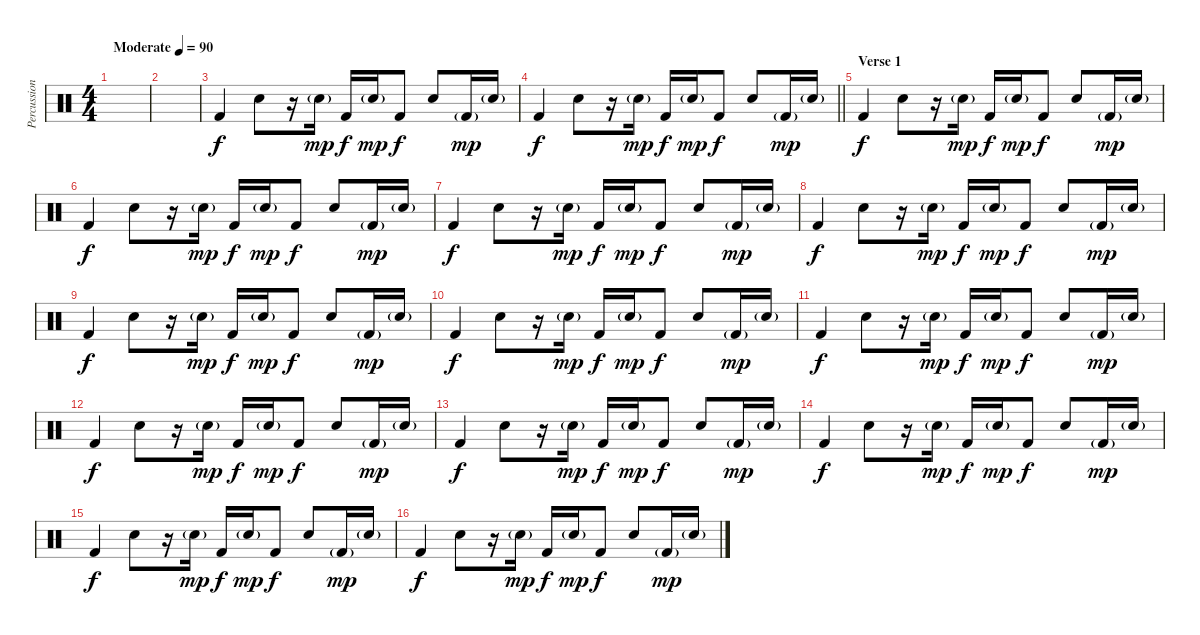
\track ("Percussion" "Percussion") {instrument percussion}
\staff {score}
\articulation defaults
\ts (4 4)
\tempo (90 "Moderate")
\clef neutral
\ks c
|
|
"Kick (hit) 2".4 "Snare (hit) 2".8 r.16 "Snare (hit) 2"{g}.16{dy mp} "Kick (hit) 2".16{dy f} "Snare (hit) 2"{g}.16{dy mp} "Kick (hit) 2".8{dy f} "Snare (hit) 2".8 "Kick (hit) 2"{g}.16{dy mp} "Snare (hit) 2"{g}.16 |
\barLineRight lightlight "Kick (hit) 2".4{dy f} "Snare (hit) 2".8
r.16 "Snare (hit) 2"{g}.16{dy mp} "Kick (hit) 2".16{dy f} "Snare (hit) 2"{g}.16{dy mp} "Kick (hit) 2".8{dy f} "Snare (hit) 2".8 "Kick (hit) 2"{g}.16{dy mp} "Snare (hit) 2"{g}.16 |
\section ("" "Verse 1")
"Kick (hit) 2".4{dy f} "Snare (hit) 2".8 r.16 "Snare (hit) 2"{g}.16{dy mp} "Kick (hit) 2".16{dy f} "Snare (hit) 2"{g}.16{dy mp} "Kick (hit) 2".8{dy f} "Snare (hit) 2".8 "Kick (hit) 2"{g}.16{dy mp} "Snare (hit) 2"{g}.16 |
"Kick (hit) 2".4{dy f} "Snare (hit) 2".8 r.16 "Snare (hit) 2"{g}.16{dy mp} "Kick (hit) 2".16{dy f} "Snare (hit) 2"{g}.16{dy mp} "Kick (hit) 2".8{dy f} "Snare (hit) 2".8 "Kick (hit) 2"{g}.16{dy mp} "Snare (hit) 2"{g}.16 |
"Kick (hit) 2".4{dy f} "Snare (hit) 2".8 r.16 "Snare (hit) 2"{g}.16{dy mp} "Kick (hit) 2".16{dy f} "Snare (hit) 2"{g}.16{dy mp} "Kick (hit) 2".8{dy f} "Snare (hit) 2".8 "Kick (hit) 2"{g}.16{dy mp} "Snare (hit) 2"{g}.16 |
"Kick (hit) 2".4{dy f} "Snare (hit) 2".8 r.16 "Snare (hit) 2"{g}.16{dy mp} "Kick (hit) 2".16{dy f} "Snare (hit) 2"{g}.16{dy mp} "Kick (hit) 2".8{dy f} "Snare (hit) 2".8 "Kick (hit) 2"{g}.16{dy mp} "Snare (hit) 2"{g}.16 |
"Kick (hit) 2".4{dy f} "Snare (hit) 2".8 r.16 "Snare (hit) 2"{g}.16{dy mp} "Kick (hit) 2".16{dy f} "Snare (hit) 2"{g}.16{dy mp} "Kick (hit) 2".8{dy f} "Snare (hit) 2".8 "Kick (hit) 2"{g}.16{dy mp} "Snare (hit) 2"{g}.16 |
"Kick (hit) 2".4{dy f} "Snare (hit) 2".8 r.16 "Snare (hit) 2"{g}.16{dy mp} "Kick (hit) 2".16{dy f} "Snare (hit) 2"{g}.16{dy mp} "Kick (hit) 2".8{dy f} "Snare (hit) 2".8 "Kick (hit) 2"{g}.16{dy mp} "Snare (hit) 2"{g}.16 |
"Kick (hit) 2".4{dy f} "Snare (hit) 2".8 r.16 "Snare (hit) 2"{g}.16{dy mp} "Kick (hit) 2".16{dy f} "Snare (hit) 2"{g}.16{dy mp} "Kick (hit) 2".8{dy f} "Snare (hit) 2".8 "Kick (hit) 2"{g}.16{dy mp} "Snare (hit) 2"{g}.16 |
"Kick (hit) 2".4{dy f} "Snare (hit) 2".8 r.16 "Snare (hit) 2"{g}.16{dy mp} "Kick (hit) 2".16{dy f} "Snare (hit) 2"{g}.16{dy mp} "Kick (hit) 2".8{dy f} "Snare (hit) 2".8 "Kick (hit) 2"{g}.16{dy mp} "Snare (hit) 2"{g}.16 |
"Kick (hit) 2".4{dy f} "Snare (hit) 2".8 r.16 "Snare (hit) 2"{g}.16{dy mp} "Kick (hit) 2".16{dy f} "Snare (hit) 2"{g}.16{dy mp} "Kick (hit) 2".8{dy f} "Snare (hit) 2".8 "Kick (hit) 2"{g}.16{dy mp} "Snare (hit) 2"{g}.16 |
"Kick (hit) 2".4{dy f} "Snare (hit) 2".8 r.16 "Snare (hit) 2"{g}.16{dy mp} "Kick (hit) 2".16{dy f} "Snare (hit) 2"{g}.16{dy mp} "Kick (hit) 2".8{dy f} "Snare (hit) 2".8 "Kick (hit) 2"{g}.16{dy mp} "Snare (hit) 2"{g}.16 |
"Kick (hit) 2".4{dy f} "Snare (hit) 2".8 r.16 "Snare (hit) 2"{g}.16{dy mp} "Kick (hit) 2".16{dy f} "Snare (hit) 2"{g}.16{dy mp} "Kick (hit) 2".8{dy f} "Snare (hit) 2".8 "Kick (hit) 2"{g}.16{dy mp} "Snare (hit) 2"{g}.16 |
"Kick (hit) 2".4{dy f} "Snare (hit) 2".8 r.16 "Snare (hit) 2"{g}.16{dy mp} "Kick (hit) 2".16{dy f} "Snare (hit) 2"{g}.16{dy mp} "Kick (hit) 2".8{dy f} "Snare (hit) 2".8 "Kick (hit) 2"{g}.16{dy mp} "Snare (hit) 2"{g}.16
